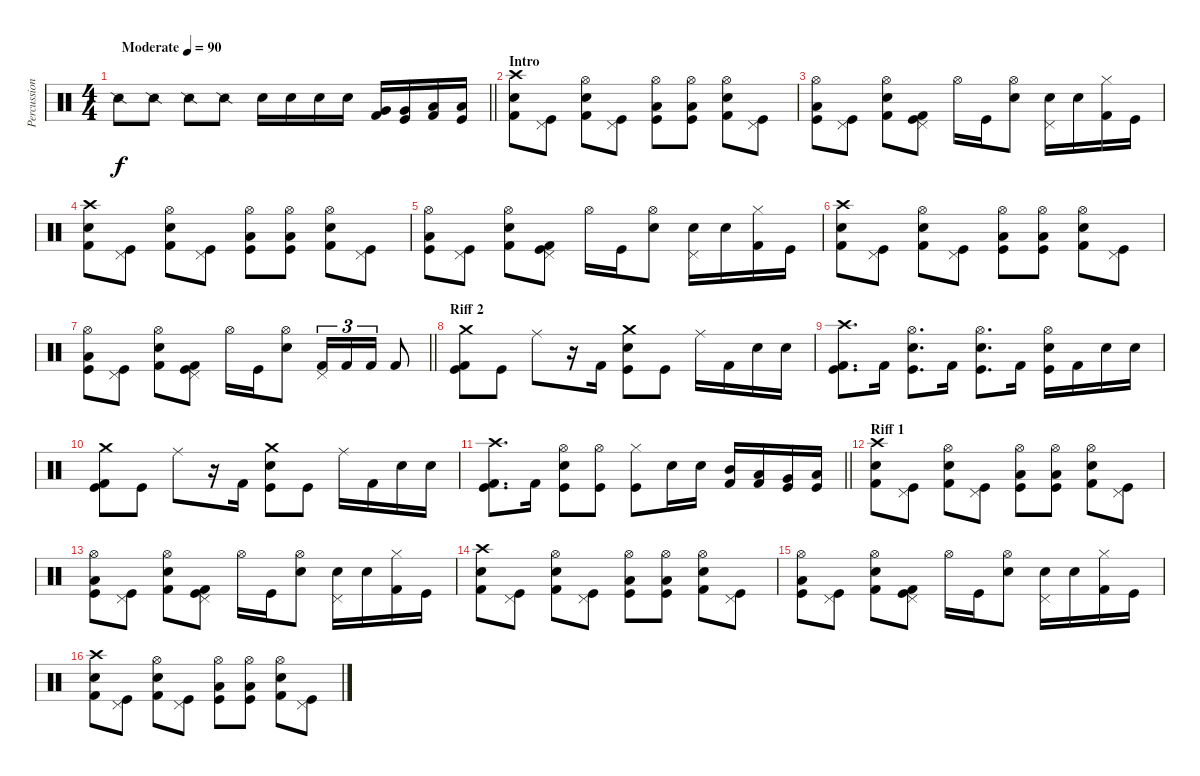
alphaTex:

\track ("Percussion" "Percussion") {instrument percussion}
\staff {score}
\articulation defaults
\ts (4 4)
\tempo (90 "Moderate")
\clef neutral
\barLineRight lightlight
\ks c "Snare (side stick) 2".8{dy f} "Snare (side stick) 2".8 "Snare (side stick) 2".8 "Snare (side stick) 2".8 "Snare (hit) 2".16 "Snare (hit) 2".16 "Snare (hit) 2".16 "Snare (hit) 2".16
("Kick (hit) 2" "Very Low Tom (hit)").16 ("Kick (hit)" "Very Low Tom (hit)").16 ("Kick (hit) 2" "Low Floor Tom (hit)").16 ("Kick (hit)" "Low Floor Tom (hit)").16 |
\section ("" "Intro")
("Kick (hit) 2" "Snare (hit) 2" "Crash high (hit)").8 ("Kick (hit)" "Pedal Hi-Hat (hit)").8 ("Kick (hit) 2" "Electric Snare (hit)" "Hi-Hat (open)").8 ("Kick (hit)" "Pedal Hi-Hat (hit)").8 ("Kick (hit)" "Low Floor Tom (hit)" "Hi-Hat (open)").8 ("Kick (hit)" "Low Floor Tom (hit)" "Hi-Hat (open)").8 ("Kick (hit) 2" "Electric Snare (hit)" "Hi-Hat (open)").8 ("Kick (hit)" "Pedal Hi-Hat (hit)").8 |
("Kick (hit)" "Low Floor Tom (hit)" "Hi-Hat (open)").8 ("Kick (hit)" "Pedal Hi-Hat (hit)").8 ("Kick (hit) 2" "Snare (hit) 2" "Hi-Hat (open)").8 ("Kick (hit)" "Kick (hit) 2" "Pedal Hi-Hat (hit)").8 "Hi-Hat (open)".16 "Kick (hit)".16 ("Snare (hit) 2" "Hi-Hat (open)").8 ("Snare (hit) 2" "Pedal Hi-Hat (hit)").16 "Snare (hit) 2".16 ("Kick (hit) 2" "Hi-Hat (closed)").16 "Kick (hit)".16 |
("Kick (hit) 2" "Snare (hit) 2" "Crash high (hit)").8 ("Kick (hit)" "Pedal Hi-Hat (hit)").8 ("Kick (hit) 2" "Electric Snare (hit)" "Hi-Hat (open)").8 ("Kick (hit)" "Pedal Hi-Hat (hit)").8 ("Kick (hit)" "Low Floor Tom (hit)" "Hi-Hat (open)").8 ("Kick (hit)" "Low Floor Tom (hit)" "Hi-Hat (open)").8 ("Kick (hit) 2" "Electric Snare (hit)" "Hi-Hat (open)").8 ("Kick (hit)" "Pedal Hi-Hat (hit)").8 |
("Kick (hit)" "Low Floor Tom (hit)" "Hi-Hat (open)").8 ("Kick (hit)" "Pedal Hi-Hat (hit)").8 ("Kick (hit) 2" "Snare (hit) 2" "Hi-Hat (open)").8 ("Kick (hit)" "Kick (hit) 2" "Pedal Hi-Hat (hit)").8 "Hi-Hat (open)".16 "Kick (hit)".16 ("Snare (hit) 2" "Hi-Hat (open)").8 ("Snare (hit) 2" "Pedal Hi-Hat (hit)").16 "Snare (hit) 2".16 ("Kick (hit) 2" "Hi-Hat (closed)").16 "Kick (hit)".16 |
("Kick (hit) 2" "Snare (hit) 2" "Crash high (hit)").8 ("Kick (hit)" "Pedal Hi-Hat (hit)").8 ("Kick (hit) 2" "Electric Snare (hit)" "Hi-Hat (open)").8 ("Kick (hit)" "Pedal Hi-Hat (hit)").8 ("Kick (hit)" "Low Floor Tom (hit)" "Hi-Hat (open)").8 ("Kick (hit)" "Low Floor Tom (hit)" "Hi-Hat (open)").8 ("Kick (hit) 2" "Electric Snare (hit)" "Hi-Hat (open)").8 ("Kick (hit)" "Pedal Hi-Hat (hit)").8 |
\barLineRight lightlight
("Kick (hit)" "Low Floor Tom (hit)" "Hi-Hat (open)").8 ("Kick (hit)" "Pedal Hi-Hat (hit)").8 ("Kick (hit) 2" "Snare (hit) 2" "Hi-Hat (open)").8 ("Kick (hit)" "Kick (hit) 2" "Pedal Hi-Hat (hit)").8 "Hi-Hat (open)".16 "Kick (hit)".16 ("Snare (hit) 2" "Hi-Hat (open)").8 ("Kick (hit) 2" "Pedal Hi-Hat (hit)").16{tu (3 2)} "Kick (hit) 2".16{tu (3 2)} "Kick (hit) 2".16{tu (3 2)} "Kick (hit) 2".8 |
\section ("" "Riff 2")
("Kick (hit)" "Kick (hit) 2" "Crash medium (hit)").8 "Kick (hit)".8 "Ride (middle)".8 r.16 "Kick (hit) 2".16 ("Kick (hit)" "Electric Snare (hit)" "Crash medium (hit)").8 "Kick (hit)".8 "Ride (middle)".16 "Kick (hit) 2".16 "Electric Snare (hit)".16 "Electric Snare (hit)".16 |
("Kick (hit)" "Kick (hit) 2" "Crash high (hit)").8{d} "Kick (hit) 2".16 ("Kick (hit)" "Snare (hit) 2" "Hi-Hat (open)").8{d} "Kick (hit) 2".16 ("Kick (hit)" "Snare (hit) 2" "Hi-Hat (open)").8{d} "Kick (hit) 2".16 ("Kick (hit)" "Snare (hit) 2" "Hi-Hat (open)").16 "Kick (hit) 2".16 "Electric Snare (hit)".16 "Electric Snare (hit)".16 |
("Kick (hit)" "Kick (hit) 2" "Crash medium (hit)").8 "Kick (hit)".8 "Ride (middle)".8 r.16 "Kick (hit) 2".16 ("Kick (hit)" "Electric Snare (hit)" "Crash medium (hit)").8 "Kick (hit)".8 "Ride (middle)".16 "Kick (hit) 2".16 "Electric Snare (hit)".16 "Electric Snare (hit)".16 |
\barLineRight lightlight
("Kick (hit)" "Kick (hit) 2" "Crash high (hit)").8{d} "Kick (hit) 2".16 ("Kick (hit)" "Snare (hit) 2" "Hi-Hat (open)").8 ("Kick (hit)" "Hi-Hat (open)").8 ("Kick (hit)" "Hi-Hat (closed)").8 "Electric Snare (hit)".16 "Electric Snare (hit)".16 ("Kick (hit) 2" "Mid Tom (hit)").16 ("Kick (hit) 2" "Low Tom (hit)").16 ("Kick (hit)" "Very Low Tom (hit)").16 ("Kick (hit)" "Low Floor Tom (hit)").16 |
\section ("" "Riff 1")
("Kick (hit) 2" "Snare (hit) 2" "Crash high (hit)").8 ("Kick (hit)" "Pedal Hi-Hat (hit)").8 ("Kick (hit) 2" "Electric Snare (hit)" "Hi-Hat (open)").8 ("Kick (hit)" "Pedal Hi-Hat (hit)").8 ("Kick (hit)" "Low Floor Tom (hit)" "Hi-Hat (open)").8 ("Kick (hit)" "Low Floor Tom (hit)" "Hi-Hat (open)").8 ("Kick (hit) 2" "Electric Snare (hit)" "Hi-Hat (open)").8 ("Kick (hit)" "Pedal Hi-Hat (hit)").8 |
("Kick (hit)" "Low Floor Tom (hit)" "Hi-Hat (open)").8 ("Kick (hit)" "Pedal Hi-Hat (hit)").8 ("Kick (hit) 2" "Snare (hit) 2" "Hi-Hat (open)").8 ("Kick (hit)" "Kick (hit) 2" "Pedal Hi-Hat (hit)").8 "Hi-Hat (open)".16 "Kick (hit)".16 ("Snare (hit) 2" "Hi-Hat (open)").8 ("Snare (hit) 2" "Pedal Hi-Hat (hit)").16 "Snare (hit) 2".16 ("Kick (hit) 2" "Hi-Hat (closed)").16 "Kick (hit)".16 |
("Kick (hit) 2" "Snare (hit) 2" "Crash high (hit)").8 ("Kick (hit)" "Pedal Hi-Hat (hit)").8 ("Kick (hit) 2" "Electric Snare (hit)" "Hi-Hat (open)").8 ("Kick (hit)" "Pedal Hi-Hat (hit)").8 ("Kick (hit)" "Low Floor Tom (hit)" "Hi-Hat (open)").8 ("Kick (hit)" "Low Floor Tom (hit)" "Hi-Hat (open)").8 ("Kick (hit) 2" "Electric Snare (hit)" "Hi-Hat (open)").8 ("Kick (hit)" "Pedal Hi-Hat (hit)").8 |
("Kick (hit)" "Low Floor Tom (hit)" "Hi-Hat (open)").8 ("Kick (hit)" "Pedal Hi-Hat (hit)").8 ("Kick (hit) 2" "Snare (hit) 2" "Hi-Hat (open)").8 ("Kick (hit)" "Kick (hit) 2" "Pedal Hi-Hat (hit)").8 "Hi-Hat (open)".16 "Kick (hit)".16 ("Snare (hit) 2" "Hi-Hat (open)").8 ("Snare (hit) 2" "Pedal Hi-Hat (hit)").16 "Snare (hit) 2".16 ("Kick (hit) 2" "Hi-Hat (closed)").16 "Kick (hit)".16 |
("Kick (hit) 2" "Snare (hit) 2" "Crash high (hit)").8 ("Kick (hit)" "Pedal Hi-Hat (hit)").8 ("Kick (hit) 2" "Electric Snare (hit)" "Hi-Hat (open)").8 ("Kick (hit)" "Pedal Hi-Hat (hit)").8 ("Kick (hit)" "Low Floor Tom (hit)" "Hi-Hat (open)").8 ("Kick (hit)" "Low Floor Tom (hit)" "Hi-Hat (open)").8 ("Kick (hit) 2" "Electric Snare (hit)" "Hi-Hat (open)").8 ("Kick (hit)" "Pedal Hi-Hat (hit)").8
